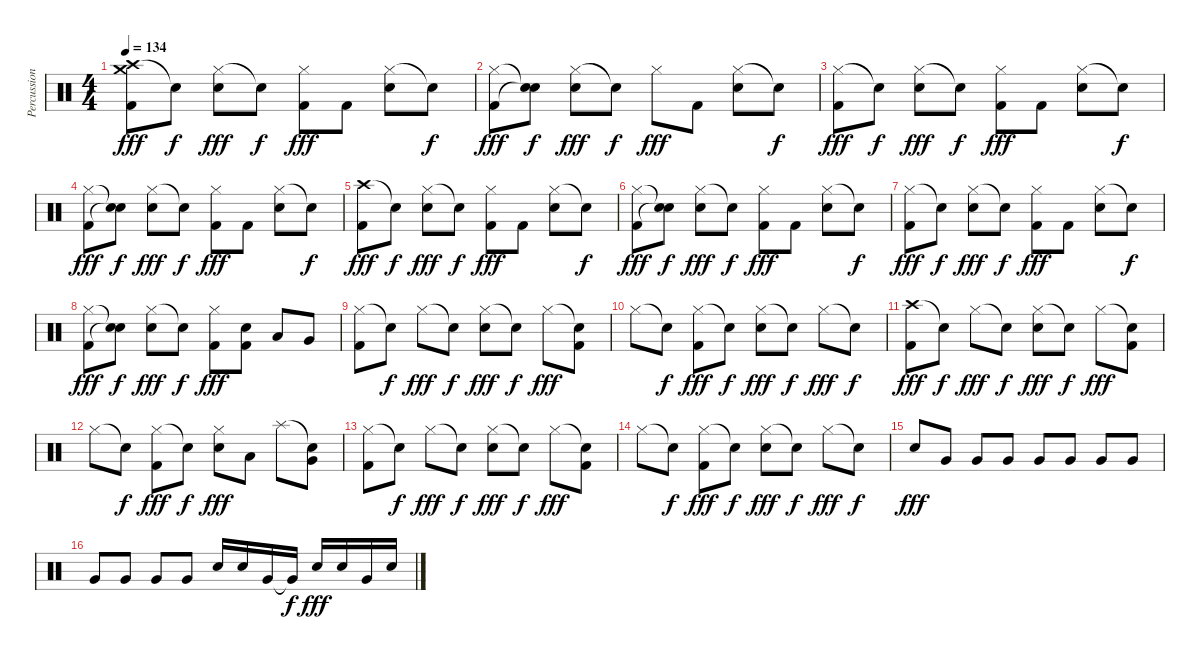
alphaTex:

\track ("Percussion" "Percussion") {instrument percussion}
\staff {score}
\articulation defaults
\ts (4 4)
\tempo 134
\clef neutral
\ks c
("Crash high (hit)" "Crash medium (hit)" "Kick (hit) 2").8{dy fff} "Snare (hit)"{t}.8{dy f} ("Hi-Hat (closed)" "Snare (hit) 2").8{dy fff} "Snare (hit)"{t}.8{dy f} ("Hi-Hat (closed)" "Kick (hit) 2").8{dy fff} "Kick (hit) 2".8 ("Hi-Hat (closed)" "Snare (hit) 2").8 "Snare (hit)"{t}.8{dy f} |
("Hi-Hat (closed)" "Kick (hit) 2").8{dy fff} ("Snare (hit)"{t} "Snare (hit)"{t}).8{dy f} ("Hi-Hat (closed)" "Snare (hit) 2").8{dy fff} "Snare (hit)"{t}.8{dy f} "Hi-Hat (closed)".8{dy fff} "Kick (hit) 2".8 ("Hi-Hat (closed)" "Snare (hit) 2").8 "Snare (hit)"{t}.8{dy f} |
("Hi-Hat (closed)" "Kick (hit) 2").8{dy fff} "Snare (hit)"{t}.8{dy f} ("Hi-Hat (closed)" "Snare (hit) 2").8{dy fff} "Snare (hit)"{t}.8{dy f} ("Hi-Hat (closed)" "Kick (hit) 2").8{dy fff} "Kick (hit) 2".8 ("Hi-Hat (closed)" "Snare (hit) 2").8 "Snare (hit)"{t}.8{dy f} |
("Hi-Hat (closed)" "Kick (hit) 2").8{dy fff} ("Snare (hit)"{t} "Snare (hit)"{t}).8{dy f} ("Hi-Hat (closed)" "Snare (hit) 2").8{dy fff} "Snare (hit)"{t}.8{dy f} ("Hi-Hat (closed)" "Kick (hit) 2").8{dy fff} "Kick (hit) 2".8 ("Hi-Hat (closed)" "Snare (hit) 2").8 "Snare (hit)"{t}.8{dy f} |
("Crash high (hit)" "Kick (hit) 2").8{dy fff} "Snare (hit)"{t}.8{dy f} ("Hi-Hat (closed)" "Snare (hit) 2").8{dy fff} "Snare (hit)"{t}.8{dy f} ("Hi-Hat (closed)" "Kick (hit) 2").8{dy fff} "Kick (hit) 2".8 ("Hi-Hat (closed)" "Snare (hit) 2").8 "Snare (hit)"{t}.8{dy f} |
("Hi-Hat (closed)" "Kick (hit) 2").8{dy fff} ("Snare (hit)"{t} "Snare (hit)"{t}).8{dy f} ("Hi-Hat (closed)" "Snare (hit) 2").8{dy fff} "Snare (hit)"{t}.8{dy f} ("Hi-Hat (closed)" "Kick (hit) 2").8{dy fff} "Kick (hit) 2".8 ("Hi-Hat (closed)" "Snare (hit) 2").8 "Snare (hit)"{t}.8{dy f} |
("Hi-Hat (closed)" "Kick (hit) 2").8{dy fff} "Snare (hit)"{t}.8{dy f} ("Hi-Hat (closed)" "Snare (hit) 2").8{dy fff} "Snare (hit)"{t}.8{dy f} ("Hi-Hat (closed)" "Kick (hit) 2").8{dy fff} "Kick (hit) 2".8 ("Hi-Hat (closed)" "Snare (hit) 2").8 "Snare (hit)"{t}.8{dy f} |
("Hi-Hat (closed)" "Kick (hit) 2").8{dy fff} ("Snare (hit)"{t} "Snare (hit)"{t}).8{dy f} ("Hi-Hat (closed)" "Snare (hit) 2").8{dy fff} "Snare (hit)"{t}.8{dy f} ("Hi-Hat (closed)" "Kick (hit) 2").8{dy fff} ("Snare (hit) 2" "Kick (hit) 2").8 "Low Tom (hit)".8 "Very Low Tom (hit)".8 |
("Hi-Hat (closed)" "Kick (hit) 2").8 "Snare (hit)"{t}.8{dy f} "Hi-Hat (closed)".8{dy fff} "Snare (hit)"{t}.8{dy f} ("Hi-Hat (closed)" "Snare (hit) 2").8{dy fff} "Snare (hit)"{t}.8{dy f} "Hi-Hat (closed)".8{dy fff} ("Snare (hit)"{t} "Kick (hit) 2").8 |
"Hi-Hat (closed)".8 "Snare (hit)"{t}.8{dy f} ("Hi-Hat (closed)" "Kick (hit) 2").8{dy fff} "Snare (hit)"{t}.8{dy f} ("Hi-Hat (closed)" "Snare (hit) 2").8{dy fff} "Snare (hit)"{t}.8{dy f} "Hi-Hat (closed)".8{dy fff} "Snare (hit)"{t}.8{dy f} |
("Crash high (hit)" "Kick (hit) 2").8{dy fff} "Snare (hit)"{t}.8{dy f} "Hi-Hat (closed)".8{dy fff} "Snare (hit)"{t}.8{dy f} ("Hi-Hat (closed)" "Snare (hit) 2").8{dy fff} "Snare (hit)"{t}.8{dy f} "Hi-Hat (closed)".8{dy fff} ("Snare (hit)"{t} "Kick (hit) 2").8 |
"Hi-Hat (closed)".8 "Snare (hit)"{t}.8{dy f} ("Hi-Hat (closed)" "Kick (hit) 2").8{dy fff} "Snare (hit)"{t}.8{dy f} ("Hi-Hat (closed)" "Snare (hit) 2").8{dy fff} "Low Tom (hit)".8 "Splash (hit)".8 ("Snare (hit)"{t} "Very Low Tom (hit)").8 |
("Hi-Hat (closed)" "Kick (hit) 2").8 "Snare (hit)"{t}.8{dy f} "Hi-Hat (closed)".8{dy fff} "Snare (hit)"{t}.8{dy f} ("Hi-Hat (closed)" "Snare (hit) 2").8{dy fff} "Snare (hit)"{t}.8{dy f} "Hi-Hat (closed)".8{dy fff} ("Snare (hit)"{t} "Kick (hit) 2").8 |
"Hi-Hat (closed)".8 "Snare (hit)"{t}.8{dy f} ("Hi-Hat (closed)" "Kick (hit) 2").8{dy fff} "Snare (hit)"{t}.8{dy f} ("Hi-Hat (closed)" "Snare (hit) 2").8{dy fff} "Snare (hit)"{t}.8{dy f} "Hi-Hat (closed)".8{dy fff} "Snare (hit)"{t}.8{dy f} |
"Snare (hit) 2".8{dy fff} "Very Low Tom (hit)".8 "Very Low Tom (hit)".8 "Very Low Tom (hit)".8 "Very Low Tom (hit)".8 "Very Low Tom (hit)".8 "Very Low Tom (hit)".8 "Very Low Tom (hit)".8 |
"Very Low Tom (hit)".8 "Very Low Tom (hit)".8 "Very Low Tom (hit)".8 "Very Low Tom (hit)".8 "Snare (hit) 2".16 "Snare (hit) 2".16 "Very Low Tom (hit)".16 "Very Low Tom (hit)"{t}.16{dy f} "Snare (hit) 2".16{dy fff} "Snare (hit) 2".16 "Very Low Tom (hit)".16 "Snare (hit) 2".16
